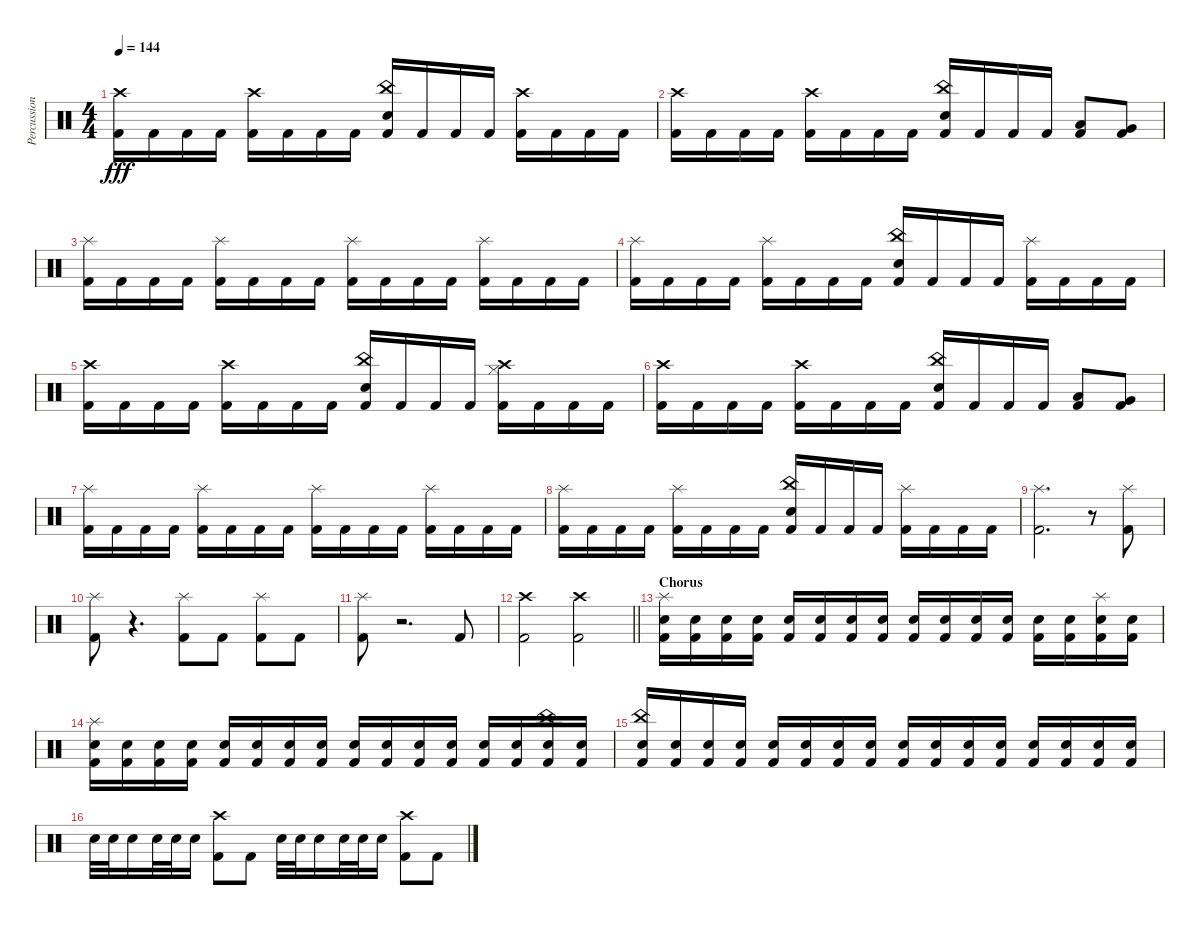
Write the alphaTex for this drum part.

\track ("Percussion" "Percussion") {instrument percussion}
\staff {score}
\articulation defaults
\ts (4 4)
\tempo 144
\clef neutral
\ks c
("Crash high (hit)" "Kick (hit) 2").16{dy fff} "Kick (hit) 2".16 "Kick (hit) 2".16 "Kick (hit) 2".16 ("Crash high (hit)" "Kick (hit) 2").16 "Kick (hit) 2".16 "Kick (hit) 2".16 "Kick (hit) 2".16 ("China (hit)" "Electric Snare (hit)" "Kick (hit) 2").16 "Kick (hit) 2".16 "Kick (hit) 2".16 "Kick (hit) 2".16 ("Crash high (hit)" "Kick (hit) 2").16 "Kick (hit) 2".16 "Kick (hit) 2".16 "Kick (hit) 2".16 |
("Crash high (hit)" "Kick (hit) 2").16 "Kick (hit) 2".16 "Kick (hit) 2".16 "Kick (hit) 2".16 ("Crash high (hit)" "Kick (hit) 2").16 "Kick (hit) 2".16 "Kick (hit) 2".16 "Kick (hit) 2".16 ("China (hit)" "Electric Snare (hit)" "Kick (hit) 2").16 "Kick (hit) 2".16 "Kick (hit) 2".16 "Kick (hit) 2".16 ("Low Tom (hit)" "Kick (hit) 2").8 ("Very Low Tom (hit)" "Kick (hit) 2").8 |
("Splash (hit)" "Kick (hit) 2").16 "Kick (hit) 2".16 "Kick (hit) 2".16 "Kick (hit) 2".16 ("Splash (hit)" "Kick (hit) 2").16 "Kick (hit) 2".16 "Kick (hit) 2".16 "Kick (hit) 2".16 ("Splash (hit)" "Kick (hit) 2").16 "Kick (hit) 2".16 "Kick (hit) 2".16 "Kick (hit) 2".16 ("Splash (hit)" "Kick (hit) 2").16 "Kick (hit) 2".16 "Kick (hit) 2".16 "Kick (hit) 2".16 |
("Splash (hit)" "Kick (hit) 2").16 "Kick (hit) 2".16 "Kick (hit) 2".16 "Kick (hit) 2".16 ("Splash (hit)" "Kick (hit) 2").16 "Kick (hit) 2".16 "Kick (hit) 2".16 "Kick (hit) 2".16 ("China (hit)" "Electric Snare (hit)" "Kick (hit) 2").16 "Kick (hit) 2".16 "Kick (hit) 2".16 "Kick (hit) 2".16 ("Splash (hit)" "Kick (hit) 2").16 "Kick (hit) 2".16 "Kick (hit) 2".16 "Kick (hit) 2".16 |
("Crash high (hit)" "Kick (hit) 2").16 "Kick (hit) 2".16 "Kick (hit) 2".16 "Kick (hit) 2".16 ("Crash high (hit)" "Kick (hit) 2").16 "Kick (hit) 2".16 "Kick (hit) 2".16 "Kick (hit) 2".16 ("China (hit)" "Electric Snare (hit)" "Kick (hit) 2").16 "Kick (hit) 2".16 "Kick (hit) 2".16 "Kick (hit) 2".16 ("Crash high (hit)" "Hi-Hat (closed)" "Kick (hit) 2").16 "Kick (hit) 2".16 "Kick (hit) 2".16 "Kick (hit) 2".16 |
("Crash high (hit)" "Kick (hit) 2").16 "Kick (hit) 2".16 "Kick (hit) 2".16 "Kick (hit) 2".16 ("Crash high (hit)" "Kick (hit) 2").16 "Kick (hit) 2".16 "Kick (hit) 2".16 "Kick (hit) 2".16 ("China (hit)" "Electric Snare (hit)" "Kick (hit) 2").16 "Kick (hit) 2".16 "Kick (hit) 2".16 "Kick (hit) 2".16 ("Low Tom (hit)" "Kick (hit) 2").8 ("Very Low Tom (hit)" "Kick (hit) 2").8 |
("Splash (hit)" "Kick (hit) 2").16 "Kick (hit) 2".16 "Kick (hit) 2".16 "Kick (hit) 2".16 ("Splash (hit)" "Kick (hit) 2").16 "Kick (hit) 2".16 "Kick (hit) 2".16 "Kick (hit) 2".16 ("Splash (hit)" "Kick (hit) 2").16 "Kick (hit) 2".16 "Kick (hit) 2".16 "Kick (hit) 2".16 ("Splash (hit)" "Kick (hit) 2").16 "Kick (hit) 2".16 "Kick (hit) 2".16 "Kick (hit) 2".16 |
("Splash (hit)" "Kick (hit) 2").16 "Kick (hit) 2".16 "Kick (hit) 2".16 "Kick (hit) 2".16 ("Splash (hit)" "Kick (hit) 2").16 "Kick (hit) 2".16 "Kick (hit) 2".16 "Kick (hit) 2".16 ("China (hit)" "Electric Snare (hit)" "Kick (hit) 2").16 "Kick (hit) 2".16 "Kick (hit) 2".16 "Kick (hit) 2".16 ("Splash (hit)" "Kick (hit) 2").16 "Kick (hit) 2".16 "Kick (hit) 2".16 "Kick (hit) 2".16 |
("Splash (hit)" "Kick (hit) 2").2{d} r.8 ("Splash (hit)" "Kick (hit) 2").8 |
("Splash (hit)" "Kick (hit) 2").8 r.4{d} ("Splash (hit)" "Kick (hit) 2").8 "Kick (hit) 2".8 ("Splash (hit)" "Kick (hit) 2").8 "Kick (hit) 2".8 |
("Splash (hit)" "Kick (hit) 2").8 r.2{d} "Kick (hit) 2".8 |
\barLineRight lightlight
("Crash high (hit)" "Kick (hit) 2").2 ("Crash high (hit)" "Kick (hit) 2").2 |
\section ("" "Chorus")
("Splash (hit)" "Electric Snare (hit)" "Kick (hit) 2").16 ("Electric Snare (hit)" "Kick (hit) 2").16 ("Electric Snare (hit)" "Kick (hit) 2").16 ("Electric Snare (hit)" "Kick (hit) 2").16 ("Electric Snare (hit)" "Kick (hit) 2").16 ("Electric Snare (hit)" "Kick (hit) 2").16 ("Electric Snare (hit)" "Kick (hit) 2").16 ("Electric Snare (hit)" "Kick (hit) 2").16 ("Electric Snare (hit)" "Kick (hit) 2").16 ("Electric Snare (hit)" "Kick (hit) 2").16 ("Electric Snare (hit)" "Kick (hit) 2").16 ("Electric Snare (hit)" "Kick (hit) 2").16 ("Electric Snare (hit)" "Kick (hit) 2").16 ("Electric Snare (hit)" "Kick (hit) 2").16 ("Splash (hit)" "Electric Snare (hit)" "Kick (hit) 2").16 ("Electric Snare (hit)" "Kick (hit) 2").16 |
("Splash (hit)" "Electric Snare (hit)" "Kick (hit) 2").16 ("Electric Snare (hit)" "Kick (hit) 2").16 ("Electric Snare (hit)" "Kick (hit) 2").16 ("Electric Snare (hit)" "Kick (hit) 2").16 ("Electric Snare (hit)" "Kick (hit) 2").16 ("Electric Snare (hit)" "Kick (hit) 2").16 ("Electric Snare (hit)" "Kick (hit) 2").16 ("Electric Snare (hit)" "Kick (hit) 2").16 ("Electric Snare (hit)" "Kick (hit) 2").16 ("Electric Snare (hit)" "Kick (hit) 2").16 ("Electric Snare (hit)" "Kick (hit) 2").16 ("Electric Snare (hit)" "Kick (hit) 2").16 ("Electric Snare (hit)" "Kick (hit) 2").16 ("Electric Snare (hit)" "Kick (hit) 2").16 ("China (hit)" "Electric Snare (hit)" "Kick (hit) 2").16 ("Electric Snare (hit)" "Kick (hit) 2").16 |
("China (hit)" "Electric Snare (hit)" "Kick (hit) 2").16 ("Electric Snare (hit)" "Kick (hit) 2").16 ("Electric Snare (hit)" "Kick (hit) 2").16 ("Electric Snare (hit)" "Kick (hit) 2").16 ("Electric Snare (hit)" "Kick (hit) 2").16 ("Electric Snare (hit)" "Kick (hit) 2").16 ("Electric Snare (hit)" "Kick (hit) 2").16 ("Electric Snare (hit)" "Kick (hit) 2").16 ("Electric Snare (hit)" "Kick (hit) 2").16 ("Electric Snare (hit)" "Kick (hit) 2").16 ("Electric Snare (hit)" "Kick (hit) 2").16 ("Electric Snare (hit)" "Kick (hit) 2").16 ("Electric Snare (hit)" "Kick (hit) 2").16 ("Electric Snare (hit)" "Kick (hit) 2").16 ("Electric Snare (hit)" "Kick (hit) 2").16 ("Electric Snare (hit)" "Kick (hit) 2").16 |
"Electric Snare (hit)".32 "Electric Snare (hit)".32 "Electric Snare (hit)".16 "Electric Snare (hit)".32 "Electric Snare (hit)".32 "Electric Snare (hit)".16 ("Crash high (hit)" "Kick (hit) 2").8 "Kick (hit) 2".8 "Electric Snare (hit)".32 "Electric Snare (hit)".32 "Electric Snare (hit)".16 "Electric Snare (hit)".32 "Electric Snare (hit)".32 "Electric Snare (hit)".16 ("Crash high (hit)" "Kick (hit) 2").8 "Kick (hit) 2".8
